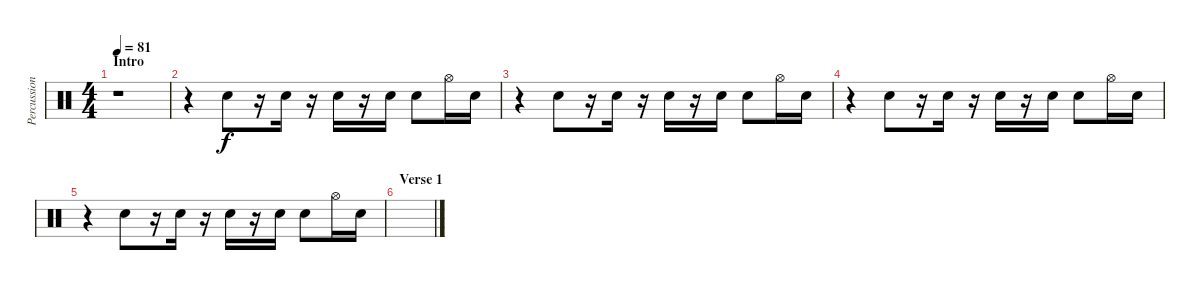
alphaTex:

\track ("Percussions" "Percussion") {instrument percussion}
\staff {score}
\articulation defaults
\ts (4 4)
\section ("" "Intro")
\tempo 81
\clef neutral
\ks c
r.1{dy f} |
r.4 "Hand Clap (hit)".8 r.16 "Hand Clap (hit)".16 r.16 "Hand Clap (hit)".16 r.16 "Hand Clap (hit)".16 "Hand Clap (hit)".8 "Hi-Hat (open)".16 "Hand Clap (hit)".16 |
r.4 "Hand Clap (hit)".8 r.16 "Hand Clap (hit)".16 r.16 "Hand Clap (hit)".16 r.16 "Hand Clap (hit)".16 "Hand Clap (hit)".8 "Hi-Hat (open)".16 "Hand Clap (hit)".16 |
r.4 "Hand Clap (hit)".8 r.16 "Hand Clap (hit)".16 r.16 "Hand Clap (hit)".16 r.16 "Hand Clap (hit)".16 "Hand Clap (hit)".8 "Hi-Hat (open)".16 "Hand Clap (hit)".16 |
r.4 "Hand Clap (hit)".8 r.16 "Hand Clap (hit)".16 r.16 "Hand Clap (hit)".16 r.16 "Hand Clap (hit)".16 "Hand Clap (hit)".8 "Hi-Hat (open)".16 "Hand Clap (hit)".16 |
\section ("" "Verse 1")
